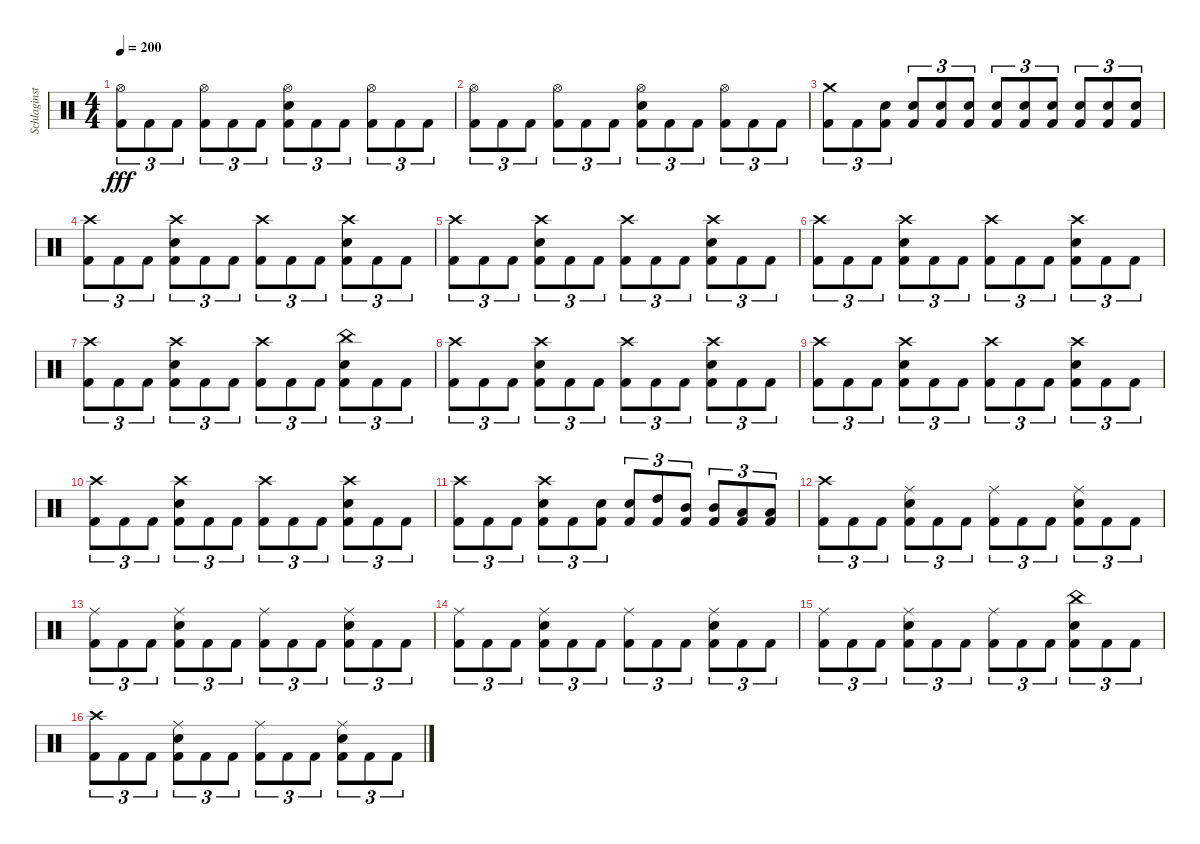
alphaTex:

\track ("Schlaginstrumente - Auswahl" "Schlaginst") {instrument percussion}
\staff {score}
\articulation defaults
\ts (4 4)
\tempo 200
\clef neutral
\ks c
("Hi-Hat (open)" "Kick (hit) 2").8{tu (3 2) dy fff} "Kick (hit) 2".8{tu (3 2)} "Kick (hit) 2".8{tu (3 2)} ("Hi-Hat (open)" "Kick (hit) 2").8{tu (3 2)} "Kick (hit) 2".8{tu (3 2)} "Kick (hit) 2".8{tu (3 2)} ("Hi-Hat (open)" "Snare (hit) 2" "Kick (hit) 2").8{tu (3 2)} "Kick (hit) 2".8{tu (3 2)} "Kick (hit) 2".8{tu (3 2)} ("Hi-Hat (open)" "Kick (hit) 2").8{tu (3 2)} "Kick (hit) 2".8{tu (3 2)} "Kick (hit) 2".8{tu (3 2)} |
("Hi-Hat (open)" "Kick (hit) 2").8{tu (3 2)} "Kick (hit) 2".8{tu (3 2)} "Kick (hit) 2".8{tu (3 2)} ("Hi-Hat (open)" "Kick (hit) 2").8{tu (3 2)} "Kick (hit) 2".8{tu (3 2)} "Kick (hit) 2".8{tu (3 2)} ("Hi-Hat (open)" "Snare (hit) 2" "Kick (hit) 2").8{tu (3 2)} "Kick (hit) 2".8{tu (3 2)} "Kick (hit) 2".8{tu (3 2)} ("Hi-Hat (open)" "Kick (hit) 2").8{tu (3 2)} "Kick (hit) 2".8{tu (3 2)} "Kick (hit) 2".8{tu (3 2)} |
("Crash medium (hit)" "Kick (hit) 2").8{tu (3 2)} "Kick (hit) 2".8{tu (3 2)} ("Snare (hit) 2" "Kick (hit) 2").8{tu (3 2)} ("Snare (hit) 2" "Kick (hit) 2").8{tu (3 2)} ("Snare (hit) 2" "Kick (hit) 2").8{tu (3 2)} ("Snare (hit) 2" "Kick (hit) 2").8{tu (3 2)} ("Snare (hit) 2" "Kick (hit) 2").8{tu (3 2)} ("Snare (hit) 2" "Kick (hit) 2").8{tu (3 2)} ("Snare (hit) 2" "Kick (hit) 2").8{tu (3 2)} ("Snare (hit) 2" "Kick (hit) 2").8{tu (3 2)} ("Snare (hit) 2" "Kick (hit) 2").8{tu (3 2)} ("Snare (hit) 2" "Kick (hit) 2").8{tu (3 2)} |
("Crash high (hit)" "Kick (hit) 2").8{tu (3 2)} "Kick (hit) 2".8{tu (3 2)} "Kick (hit) 2".8{tu (3 2)} ("Crash high (hit)" "Snare (hit) 2" "Kick (hit) 2").8{tu (3 2)} "Kick (hit) 2".8{tu (3 2)} "Kick (hit) 2".8{tu (3 2)} ("Crash high (hit)" "Kick (hit) 2").8{tu (3 2)} "Kick (hit) 2".8{tu (3 2)} "Kick (hit) 2".8{tu (3 2)} ("Crash high (hit)" "Snare (hit) 2" "Kick (hit) 2").8{tu (3 2)} "Kick (hit) 2".8{tu (3 2)} "Kick (hit) 2".8{tu (3 2)} |
("Crash high (hit)" "Kick (hit) 2").8{tu (3 2)} "Kick (hit) 2".8{tu (3 2)} "Kick (hit) 2".8{tu (3 2)} ("Crash high (hit)" "Snare (hit) 2" "Kick (hit) 2").8{tu (3 2)} "Kick (hit) 2".8{tu (3 2)} "Kick (hit) 2".8{tu (3 2)} ("Crash high (hit)" "Kick (hit) 2").8{tu (3 2)} "Kick (hit) 2".8{tu (3 2)} "Kick (hit) 2".8{tu (3 2)} ("Crash high (hit)" "Snare (hit) 2" "Kick (hit) 2").8{tu (3 2)} "Kick (hit) 2".8{tu (3 2)} "Kick (hit) 2".8{tu (3 2)} |
("Crash high (hit)" "Kick (hit) 2").8{tu (3 2)} "Kick (hit) 2".8{tu (3 2)} "Kick (hit) 2".8{tu (3 2)} ("Crash high (hit)" "Snare (hit) 2" "Kick (hit) 2").8{tu (3 2)} "Kick (hit) 2".8{tu (3 2)} "Kick (hit) 2".8{tu (3 2)} ("Crash high (hit)" "Kick (hit) 2").8{tu (3 2)} "Kick (hit) 2".8{tu (3 2)} "Kick (hit) 2".8{tu (3 2)} ("Crash high (hit)" "Snare (hit) 2" "Kick (hit) 2").8{tu (3 2)} "Kick (hit) 2".8{tu (3 2)} "Kick (hit) 2".8{tu (3 2)} |
("Crash high (hit)" "Kick (hit) 2").8{tu (3 2)} "Kick (hit) 2".8{tu (3 2)} "Kick (hit) 2".8{tu (3 2)} ("Crash high (hit)" "Snare (hit) 2" "Kick (hit) 2").8{tu (3 2)} "Kick (hit) 2".8{tu (3 2)} "Kick (hit) 2".8{tu (3 2)} ("Crash high (hit)" "Kick (hit) 2").8{tu (3 2)} "Kick (hit) 2".8{tu (3 2)} "Kick (hit) 2".8{tu (3 2)} ("China (hit)" "Snare (hit) 2" "Kick (hit) 2").8{tu (3 2)} "Kick (hit) 2".8{tu (3 2)} "Kick (hit) 2".8{tu (3 2)} |
("Crash high (hit)" "Kick (hit) 2").8{tu (3 2)} "Kick (hit) 2".8{tu (3 2)} "Kick (hit) 2".8{tu (3 2)} ("Crash high (hit)" "Snare (hit) 2" "Kick (hit) 2").8{tu (3 2)} "Kick (hit) 2".8{tu (3 2)} "Kick (hit) 2".8{tu (3 2)} ("Crash high (hit)" "Kick (hit) 2").8{tu (3 2)} "Kick (hit) 2".8{tu (3 2)} "Kick (hit) 2".8{tu (3 2)} ("Crash high (hit)" "Snare (hit) 2" "Kick (hit) 2").8{tu (3 2)} "Kick (hit) 2".8{tu (3 2)} "Kick (hit) 2".8{tu (3 2)} |
("Crash high (hit)" "Kick (hit) 2").8{tu (3 2)} "Kick (hit) 2".8{tu (3 2)} "Kick (hit) 2".8{tu (3 2)} ("Crash high (hit)" "Snare (hit) 2" "Kick (hit) 2").8{tu (3 2)} "Kick (hit) 2".8{tu (3 2)} "Kick (hit) 2".8{tu (3 2)} ("Crash high (hit)" "Kick (hit) 2").8{tu (3 2)} "Kick (hit) 2".8{tu (3 2)} "Kick (hit) 2".8{tu (3 2)} ("Crash high (hit)" "Snare (hit) 2" "Kick (hit) 2").8{tu (3 2)} "Kick (hit) 2".8{tu (3 2)} "Kick (hit) 2".8{tu (3 2)} |
("Crash high (hit)" "Kick (hit) 2").8{tu (3 2)} "Kick (hit) 2".8{tu (3 2)} "Kick (hit) 2".8{tu (3 2)} ("Crash high (hit)" "Snare (hit) 2" "Kick (hit) 2").8{tu (3 2)} "Kick (hit) 2".8{tu (3 2)} "Kick (hit) 2".8{tu (3 2)} ("Crash high (hit)" "Kick (hit) 2").8{tu (3 2)} "Kick (hit) 2".8{tu (3 2)} "Kick (hit) 2".8{tu (3 2)} ("Crash high (hit)" "Snare (hit) 2" "Kick (hit) 2").8{tu (3 2)} "Kick (hit) 2".8{tu (3 2)} "Kick (hit) 2".8{tu (3 2)} |
("Crash high (hit)" "Kick (hit) 2").8{tu (3 2)} "Kick (hit) 2".8{tu (3 2)} "Kick (hit) 2".8{tu (3 2)} ("Crash high (hit)" "Snare (hit) 2" "Kick (hit) 2").8{tu (3 2)} "Kick (hit) 2".8{tu (3 2)} ("Snare (hit) 2" "Kick (hit) 2").8{tu (3 2)} ("Snare (hit) 2" "Kick (hit) 2").8{tu (3 2)} ("High Tom (hit)" "Kick (hit) 2").8{tu (3 2)} ("Mid Tom (hit)" "Kick (hit) 2").8{tu (3 2)} ("Mid Tom (hit)" "Kick (hit) 2").8{tu (3 2)} ("Low Tom (hit)" "Kick (hit) 2").8{tu (3 2)} ("Low Tom (hit)" "Kick (hit) 2").8{tu (3 2)} |
("Crash high (hit)" "Kick (hit) 2").8{tu (3 2)} "Kick (hit) 2".8{tu (3 2)} "Kick (hit) 2".8{tu (3 2)} ("Ride (middle)" "Snare (hit) 2" "Kick (hit) 2").8{tu (3 2)} "Kick (hit) 2".8{tu (3 2)} "Kick (hit) 2".8{tu (3 2)} ("Ride (middle)" "Kick (hit) 2").8{tu (3 2)} "Kick (hit) 2".8{tu (3 2)} "Kick (hit) 2".8{tu (3 2)} ("Ride (middle)" "Snare (hit) 2" "Kick (hit) 2").8{tu (3 2)} "Kick (hit) 2".8{tu (3 2)} "Kick (hit) 2".8{tu (3 2)} |
("Ride (middle)" "Kick (hit) 2").8{tu (3 2)} "Kick (hit) 2".8{tu (3 2)} "Kick (hit) 2".8{tu (3 2)} ("Ride (middle)" "Snare (hit) 2" "Kick (hit) 2").8{tu (3 2)} "Kick (hit) 2".8{tu (3 2)} "Kick (hit) 2".8{tu (3 2)} ("Ride (middle)" "Kick (hit) 2").8{tu (3 2)} "Kick (hit) 2".8{tu (3 2)} "Kick (hit) 2".8{tu (3 2)} ("Ride (middle)" "Snare (hit) 2" "Kick (hit) 2").8{tu (3 2)} "Kick (hit) 2".8{tu (3 2)} "Kick (hit) 2".8{tu (3 2)} |
("Ride (middle)" "Kick (hit) 2").8{tu (3 2)} "Kick (hit) 2".8{tu (3 2)} "Kick (hit) 2".8{tu (3 2)} ("Ride (middle)" "Snare (hit) 2" "Kick (hit) 2").8{tu (3 2)} "Kick (hit) 2".8{tu (3 2)} "Kick (hit) 2".8{tu (3 2)} ("Ride (middle)" "Kick (hit) 2").8{tu (3 2)} "Kick (hit) 2".8{tu (3 2)} "Kick (hit) 2".8{tu (3 2)} ("Ride (middle)" "Snare (hit) 2" "Kick (hit) 2").8{tu (3 2)} "Kick (hit) 2".8{tu (3 2)} "Kick (hit) 2".8{tu (3 2)} |
("Ride (middle)" "Kick (hit) 2").8{tu (3 2)} "Kick (hit) 2".8{tu (3 2)} "Kick (hit) 2".8{tu (3 2)} ("Ride (middle)" "Snare (hit) 2" "Kick (hit) 2").8{tu (3 2)} "Kick (hit) 2".8{tu (3 2)} "Kick (hit) 2".8{tu (3 2)} ("Ride (middle)" "Kick (hit) 2").8{tu (3 2)} "Kick (hit) 2".8{tu (3 2)} "Kick (hit) 2".8{tu (3 2)} ("China (hit)" "Snare (hit) 2" "Kick (hit) 2").8{tu (3 2)} "Kick (hit) 2".8{tu (3 2)} "Kick (hit) 2".8{tu (3 2)} |
("Crash high (hit)" "Kick (hit) 2").8{tu (3 2)} "Kick (hit) 2".8{tu (3 2)} "Kick (hit) 2".8{tu (3 2)} ("Ride (middle)" "Snare (hit) 2" "Kick (hit) 2").8{tu (3 2)} "Kick (hit) 2".8{tu (3 2)} "Kick (hit) 2".8{tu (3 2)} ("Ride (middle)" "Kick (hit) 2").8{tu (3 2)} "Kick (hit) 2".8{tu (3 2)} "Kick (hit) 2".8{tu (3 2)} ("Ride (middle)" "Snare (hit) 2" "Kick (hit) 2").8{tu (3 2)} "Kick (hit) 2".8{tu (3 2)} "Kick (hit) 2".8{tu (3 2)}
